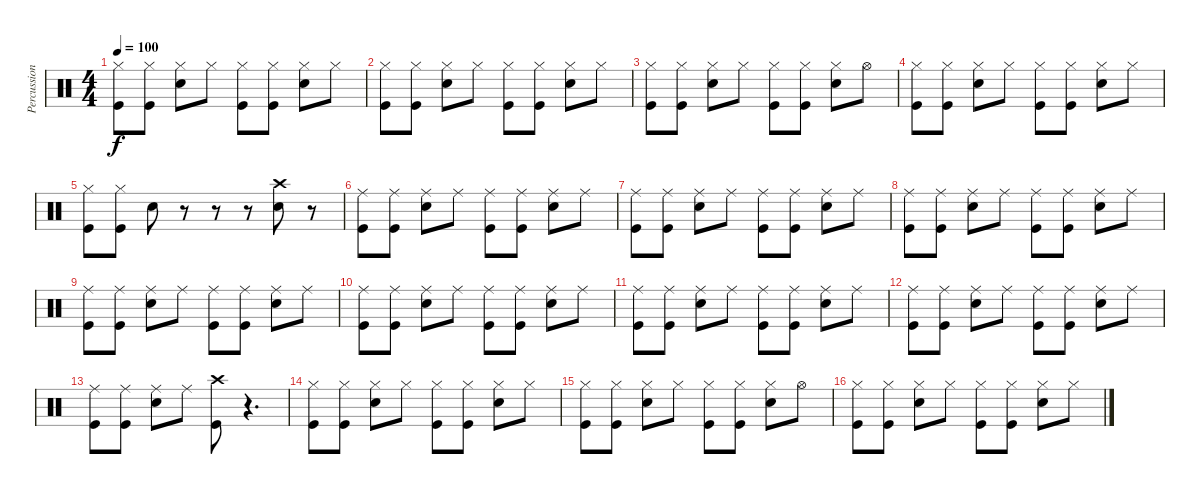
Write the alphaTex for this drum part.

\track ("Percussions" "Percussion") {instrument percussion}
\staff {score}
\articulation defaults
\ts (4 4)
\tempo 100
\clef neutral
\ks c
("Hi-Hat (closed)" "Kick (hit)").8{dy f} ("Hi-Hat (closed)" "Kick (hit)").8 ("Hi-Hat (closed)" "Electric Snare (hit)").8 "Hi-Hat (closed)".8 ("Hi-Hat (closed)" "Kick (hit)").8 ("Hi-Hat (closed)" "Kick (hit)").8 ("Hi-Hat (closed)" "Electric Snare (hit)").8 "Hi-Hat (closed)".8 |
("Hi-Hat (closed)" "Kick (hit)").8 ("Hi-Hat (closed)" "Kick (hit)").8 ("Hi-Hat (closed)" "Electric Snare (hit)").8 "Hi-Hat (closed)".8 ("Hi-Hat (closed)" "Kick (hit)").8 ("Hi-Hat (closed)" "Kick (hit)").8 ("Hi-Hat (closed)" "Electric Snare (hit)").8 "Hi-Hat (closed)".8 |
("Hi-Hat (closed)" "Kick (hit)").8 ("Hi-Hat (closed)" "Kick (hit)").8 ("Hi-Hat (closed)" "Electric Snare (hit)").8 "Hi-Hat (closed)".8 ("Hi-Hat (closed)" "Kick (hit)").8 ("Hi-Hat (closed)" "Kick (hit)").8 ("Hi-Hat (closed)" "Electric Snare (hit)").8 "Hi-Hat (open)".8 |
("Hi-Hat (closed)" "Kick (hit)").8 ("Hi-Hat (closed)" "Kick (hit)").8 ("Hi-Hat (closed)" "Electric Snare (hit)").8 "Hi-Hat (closed)".8 ("Hi-Hat (closed)" "Kick (hit)").8 ("Hi-Hat (closed)" "Kick (hit)").8 ("Hi-Hat (closed)" "Electric Snare (hit)").8 "Hi-Hat (closed)".8 |
("Hi-Hat (closed)" "Kick (hit)").8 ("Hi-Hat (closed)" "Kick (hit)").8 "Electric Snare (hit)".8 r.8 r.8 r.8 ("Crash high (hit)" "Electric Snare (hit)").8 r.8 |
("Ride (middle)" "Kick (hit)").8 ("Ride (middle)" "Kick (hit)").8 ("Ride (middle)" "Electric Snare (hit)").8 "Ride (middle)".8 ("Ride (middle)" "Kick (hit)").8 ("Ride (middle)" "Kick (hit)").8 ("Ride (middle)" "Electric Snare (hit)").8 "Ride (middle)".8 |
("Ride (middle)" "Kick (hit)").8 ("Ride (middle)" "Kick (hit)").8 ("Ride (middle)" "Electric Snare (hit)").8 "Ride (middle)".8 ("Ride (middle)" "Kick (hit)").8 ("Ride (middle)" "Kick (hit)").8 ("Ride (middle)" "Electric Snare (hit)").8 "Ride (middle)".8 |
("Ride (middle)" "Kick (hit)").8 ("Ride (middle)" "Kick (hit)").8 ("Ride (middle)" "Electric Snare (hit)").8 "Ride (middle)".8 ("Ride (middle)" "Kick (hit)").8 ("Ride (middle)" "Kick (hit)").8 ("Ride (middle)" "Electric Snare (hit)").8 "Ride (middle)".8 |
("Ride (middle)" "Kick (hit)").8 ("Ride (middle)" "Kick (hit)").8 ("Ride (middle)" "Electric Snare (hit)").8 "Ride (middle)".8 ("Ride (middle)" "Kick (hit)").8 ("Ride (middle)" "Kick (hit)").8 ("Ride (middle)" "Electric Snare (hit)").8 "Ride (middle)".8 |
("Ride (middle)" "Kick (hit)").8 ("Ride (middle)" "Kick (hit)").8 ("Ride (middle)" "Electric Snare (hit)").8 "Ride (middle)".8 ("Ride (middle)" "Kick (hit)").8 ("Ride (middle)" "Kick (hit)").8 ("Ride (middle)" "Electric Snare (hit)").8 "Ride (middle)".8 |
("Ride (middle)" "Kick (hit)").8 ("Ride (middle)" "Kick (hit)").8 ("Ride (middle)" "Electric Snare (hit)").8 "Ride (middle)".8 ("Ride (middle)" "Kick (hit)").8 ("Ride (middle)" "Kick (hit)").8 ("Ride (middle)" "Electric Snare (hit)").8 "Ride (middle)".8 |
("Ride (middle)" "Kick (hit)").8 ("Ride (middle)" "Kick (hit)").8 ("Ride (middle)" "Electric Snare (hit)").8 "Ride (middle)".8 ("Ride (middle)" "Kick (hit)").8 ("Ride (middle)" "Kick (hit)").8 ("Ride (middle)" "Electric Snare (hit)").8 "Ride (middle)".8 |
("Ride (middle)" "Kick (hit)").8 ("Ride (middle)" "Kick (hit)").8 ("Ride (middle)" "Electric Snare (hit)").8 "Ride (middle)".8 ("Crash high (hit)" "Kick (hit)").8 r.4{d} |
("Hi-Hat (closed)" "Kick (hit)").8 ("Hi-Hat (closed)" "Kick (hit)").8 ("Hi-Hat (closed)" "Electric Snare (hit)").8 "Hi-Hat (closed)".8 ("Hi-Hat (closed)" "Kick (hit)").8 ("Hi-Hat (closed)" "Kick (hit)").8 ("Hi-Hat (closed)" "Electric Snare (hit)").8 "Hi-Hat (closed)".8 |
("Hi-Hat (closed)" "Kick (hit)").8 ("Hi-Hat (closed)" "Kick (hit)").8 ("Hi-Hat (closed)" "Electric Snare (hit)").8 "Hi-Hat (closed)".8 ("Hi-Hat (closed)" "Kick (hit)").8 ("Hi-Hat (closed)" "Kick (hit)").8 ("Hi-Hat (closed)" "Electric Snare (hit)").8 "Hi-Hat (open)".8 |
("Hi-Hat (closed)" "Kick (hit)").8 ("Hi-Hat (closed)" "Kick (hit)").8 ("Hi-Hat (closed)" "Electric Snare (hit)").8 "Hi-Hat (closed)".8 ("Hi-Hat (closed)" "Kick (hit)").8 ("Hi-Hat (closed)" "Kick (hit)").8 ("Hi-Hat (closed)" "Electric Snare (hit)").8 "Hi-Hat (closed)".8
